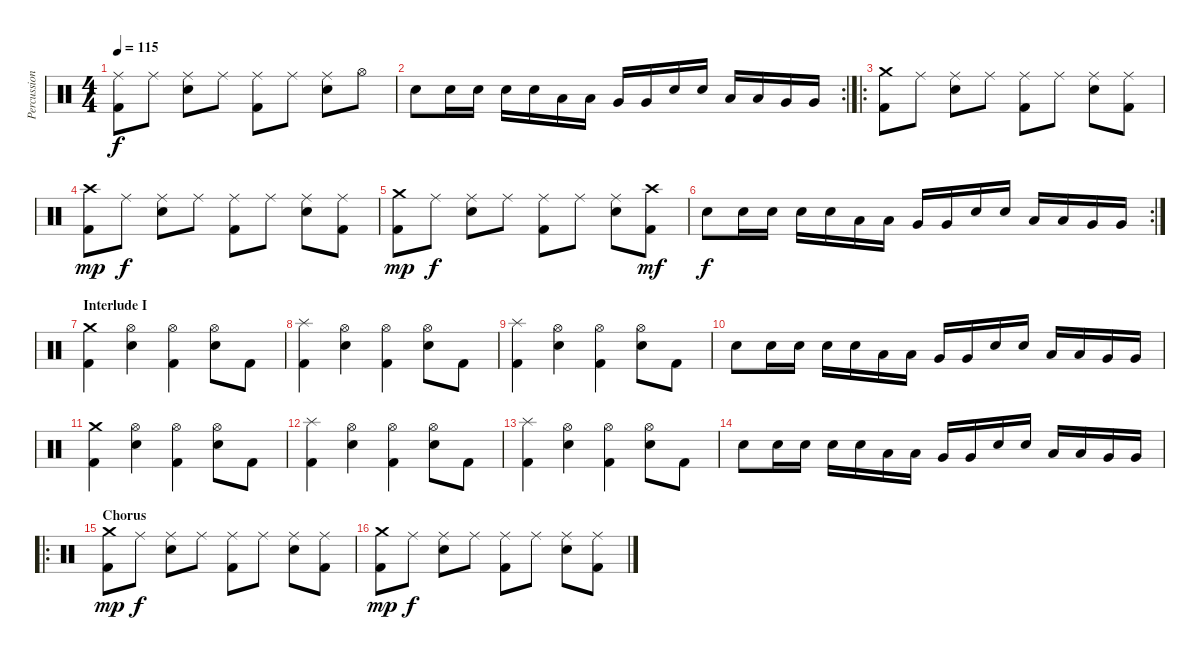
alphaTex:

\track ("Percussion" "Percussion") {instrument percussion}
\staff {score}
\articulation defaults
\ts (4 4)
\tempo 115
\clef neutral
\ks c
("Kick (hit) 2" "Ride (middle)").8{dy f} "Ride (middle)".8 ("Electric Snare (hit)" "Ride (middle)").8 "Ride (middle)".8 ("Kick (hit) 2" "Ride (middle)").8 "Ride (middle)".8 ("Electric Snare (hit)" "Ride (middle)").8 "Hi-Hat (open)".8 |
\rc 2 "Electric Snare (hit)".8 "Electric Snare (hit)".16 "Electric Snare (hit)".16 "Electric Snare (hit)".16 "Electric Snare (hit)".16 "Low Tom (hit)".16 "Low Tom (hit)".16 "Very Low Tom (hit)".16 "Very Low Tom (hit)".16 "Electric Snare (hit)".16 "Electric Snare (hit)".16 "Low Tom (hit)".16 "Low Tom (hit)".16 "Very Low Tom (hit)".16 "Very Low Tom (hit)".16
|
\ro
("Kick (hit) 2" "Crash medium (hit)").8 "Ride (middle)".8 ("Electric Snare (hit)" "Ride (middle)").8 "Ride (middle)".8 ("Kick (hit) 2" "Ride (middle)").8 "Ride (middle)".8 ("Electric Snare (hit)" "Ride (middle)").8 ("Kick (hit) 2" "Ride (middle)").8 |
("Kick (hit) 2" "Crash high (hit)").8{dy mp} "Ride (middle)".8{dy f} ("Electric Snare (hit)" "Ride (middle)").8 "Ride (middle)".8 ("Kick (hit) 2" "Ride (middle)").8 "Ride (middle)".8 ("Electric Snare (hit)" "Ride (middle)").8 ("Kick (hit) 2" "Ride (middle)").8 |
("Kick (hit) 2" "Crash medium (hit)").8{dy mp} "Ride (middle)".8{dy f} ("Electric Snare (hit)" "Ride (middle)").8 "Ride (middle)".8 ("Kick (hit) 2" "Ride (middle)").8 "Ride (middle)".8 ("Electric Snare (hit)" "Ride (middle)").8 ("Kick (hit) 2" "Crash high (hit)").8{dy mf} |
\rc 2 "Electric Snare (hit)".8{dy f} "Electric Snare (hit)".16 "Electric Snare (hit)".16 "Electric Snare (hit)".16 "Electric Snare (hit)".16 "Low Tom (hit)".16 "Low Tom (hit)".16 "Very Low Tom (hit)".16 "Very Low Tom (hit)".16 "Electric Snare (hit)".16 "Electric Snare (hit)".16 "Low Tom (hit)".16 "Low Tom (hit)".16 "Very Low Tom (hit)".16 "Very Low Tom (hit)".16
|
\section ("" "Interlude I")
("Kick (hit) 2" "Crash medium (hit)").4 ("Electric Snare (hit)" "Hi-Hat (open)").4 ("Kick (hit) 2" "Hi-Hat (open)").4 ("Electric Snare (hit)" "Hi-Hat (open)").8 "Kick (hit) 2".8 |
("Kick (hit) 2" "Splash (hit)").4 ("Electric Snare (hit)" "Hi-Hat (open)").4 ("Kick (hit) 2" "Hi-Hat (open)").4 ("Electric Snare (hit)" "Hi-Hat (open)").8 "Kick (hit) 2".8 |
("Kick (hit) 2" "Splash (hit)").4 ("Electric Snare (hit)" "Hi-Hat (open)").4 ("Kick (hit) 2" "Hi-Hat (open)").4 ("Electric Snare (hit)" "Hi-Hat (open)").8 "Kick (hit) 2".8 |
"Electric Snare (hit)".8 "Electric Snare (hit)".16 "Electric Snare (hit)".16 "Electric Snare (hit)".16 "Electric Snare (hit)".16 "Low Tom (hit)".16 "Low Tom (hit)".16 "Very Low Tom (hit)".16 "Very Low Tom (hit)".16 "Electric Snare (hit)".16 "Electric Snare (hit)".16 "Low Tom (hit)".16 "Low Tom (hit)".16 "Very Low Tom (hit)".16 "Very Low Tom (hit)".16 |
("Kick (hit) 2" "Crash medium (hit)").4 ("Electric Snare (hit)" "Hi-Hat (open)").4 ("Kick (hit) 2" "Hi-Hat (open)").4 ("Electric Snare (hit)" "Hi-Hat (open)").8 "Kick (hit) 2".8 |
("Kick (hit) 2" "Splash (hit)").4 ("Electric Snare (hit)" "Hi-Hat (open)").4 ("Kick (hit) 2" "Hi-Hat (open)").4 ("Electric Snare (hit)" "Hi-Hat (open)").8 "Kick (hit) 2".8 |
("Kick (hit) 2" "Splash (hit)").4 ("Electric Snare (hit)" "Hi-Hat (open)").4 ("Kick (hit) 2" "Hi-Hat (open)").4 ("Electric Snare (hit)" "Hi-Hat (open)").8 "Kick (hit) 2".8 |
"Electric Snare (hit)".8 "Electric Snare (hit)".16 "Electric Snare (hit)".16 "Electric Snare (hit)".16 "Electric Snare (hit)".16 "Low Tom (hit)".16 "Low Tom (hit)".16 "Very Low Tom (hit)".16 "Very Low Tom (hit)".16 "Electric Snare (hit)".16 "Electric Snare (hit)".16 "Low Tom (hit)".16 "Low Tom (hit)".16 "Very Low Tom (hit)".16 "Very Low Tom (hit)".16 |
\ro
\section ("" "Chorus")
("Kick (hit) 2" "Crash medium (hit)").8{dy mp} "Ride (middle)".8{dy f} ("Electric Snare (hit)" "Ride (middle)").8 "Ride (middle)".8 ("Kick (hit) 2" "Ride (middle)").8 "Ride (middle)".8 ("Electric Snare (hit)" "Ride (middle)").8 ("Kick (hit) 2" "Ride (middle)").8 |
("Kick (hit) 2" "Crash medium (hit)").8{dy mp} "Ride (middle)".8{dy f} ("Electric Snare (hit)" "Ride (middle)").8 "Ride (middle)".8 ("Kick (hit) 2" "Ride (middle)").8 "Ride (middle)".8 ("Electric Snare (hit)" "Ride (middle)").8 ("Kick (hit) 2" "Ride (middle)").8
